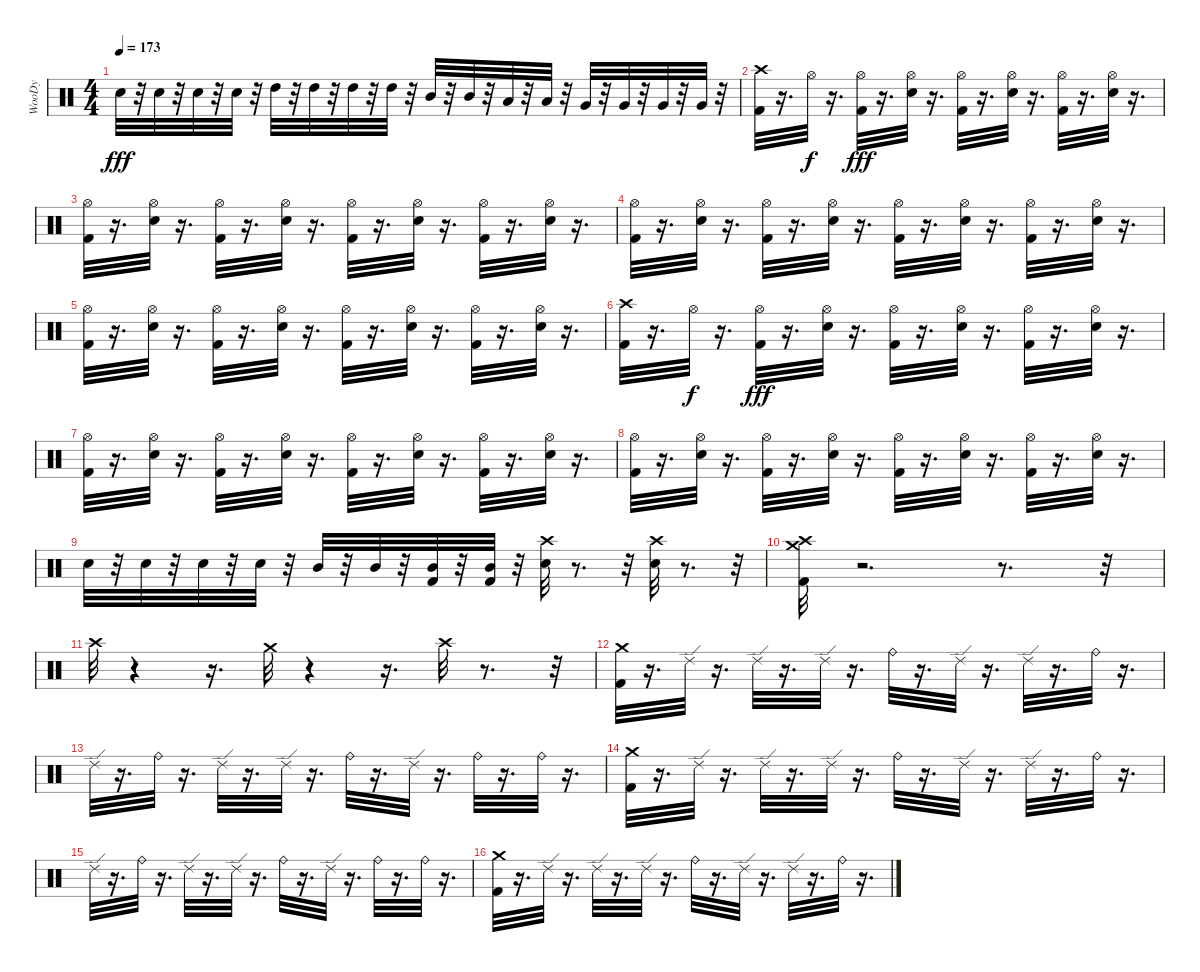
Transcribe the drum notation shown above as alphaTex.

\track ("WooDy" "WooDy") {instrument percussion}
\staff {score}
\articulation defaults
\ts (4 4)
\tempo 173
\clef neutral
\ks c "Electric Snare (hit)".32{dy fff}
r.32 "Electric Snare (hit)".32 r.32 "Electric Snare (hit)".32 r.32 "Electric Snare (hit)".32 r.32 "High Tom (hit)".32 r.32 "High Tom (hit)".32 r.32 "High Tom (hit)".32 r.32 "High Tom (hit)".32 r.32 "Mid Tom (hit)".32 r.32 "Mid Tom (hit)".32 r.32 "Low Tom (hit)".32 r.32 "Low Tom (hit)".32 r.32 "Very Low Tom (hit)".32 r.32 "Very Low Tom (hit)".32 r.32 "Very Low Tom (hit)".32 r.32 "Very Low Tom (hit)".32 r.32 |
("Kick (hit) 2" "Crash high (hit)").32 r.16{d} "Hi-Hat (open)".32{dy f} r.16{d} ("Kick (hit) 2" "Hi-Hat (open)").32{dy fff} r.16{d} ("Electric Snare (hit)" "Hi-Hat (open)").32 r.16{d} ("Kick (hit) 2" "Hi-Hat (open)").32 r.16{d} ("Electric Snare (hit)" "Hi-Hat (open)").32 r.16{d} ("Kick (hit) 2" "Hi-Hat (open)").32 r.16{d} ("Electric Snare (hit)" "Hi-Hat (open)").32 r.16{d} |
("Kick (hit) 2" "Hi-Hat (open)").32 r.16{d} ("Electric Snare (hit)" "Hi-Hat (open)").32 r.16{d} ("Kick (hit) 2" "Hi-Hat (open)").32 r.16{d} ("Electric Snare (hit)" "Hi-Hat (open)").32 r.16{d} ("Kick (hit) 2" "Hi-Hat (open)").32 r.16{d} ("Electric Snare (hit)" "Hi-Hat (open)").32 r.16{d} ("Kick (hit) 2" "Hi-Hat (open)").32 r.16{d} ("Electric Snare (hit)" "Hi-Hat (open)").32 r.16{d} |
("Kick (hit) 2" "Hi-Hat (open)").32 r.16{d} ("Electric Snare (hit)" "Hi-Hat (open)").32 r.16{d} ("Kick (hit) 2" "Hi-Hat (open)").32 r.16{d} ("Electric Snare (hit)" "Hi-Hat (open)").32 r.16{d} ("Kick (hit) 2" "Hi-Hat (open)").32 r.16{d} ("Electric Snare (hit)" "Hi-Hat (open)").32 r.16{d} ("Kick (hit) 2" "Hi-Hat (open)").32 r.16{d} ("Electric Snare (hit)" "Hi-Hat (open)").32 r.16{d} |
("Kick (hit) 2" "Hi-Hat (open)").32 r.16{d} ("Electric Snare (hit)" "Hi-Hat (open)").32 r.16{d} ("Kick (hit) 2" "Hi-Hat (open)").32 r.16{d} ("Electric Snare (hit)" "Hi-Hat (open)").32 r.16{d} ("Kick (hit) 2" "Hi-Hat (open)").32 r.16{d} ("Electric Snare (hit)" "Hi-Hat (open)").32 r.16{d} ("Kick (hit) 2" "Hi-Hat (open)").32 r.16{d} ("Electric Snare (hit)" "Hi-Hat (open)").32 r.16{d} |
("Kick (hit) 2" "Crash high (hit)").32 r.16{d} "Hi-Hat (open)".32{dy f} r.16{d} ("Kick (hit) 2" "Hi-Hat (open)").32{dy fff} r.16{d} ("Electric Snare (hit)" "Hi-Hat (open)").32 r.16{d} ("Kick (hit) 2" "Hi-Hat (open)").32 r.16{d} ("Electric Snare (hit)" "Hi-Hat (open)").32 r.16{d} ("Kick (hit) 2" "Hi-Hat (open)").32 r.16{d} ("Electric Snare (hit)" "Hi-Hat (open)").32 r.16{d} |
("Kick (hit) 2" "Hi-Hat (open)").32 r.16{d} ("Electric Snare (hit)" "Hi-Hat (open)").32 r.16{d} ("Kick (hit) 2" "Hi-Hat (open)").32 r.16{d} ("Electric Snare (hit)" "Hi-Hat (open)").32 r.16{d} ("Kick (hit) 2" "Hi-Hat (open)").32 r.16{d} ("Electric Snare (hit)" "Hi-Hat (open)").32 r.16{d} ("Kick (hit) 2" "Hi-Hat (open)").32 r.16{d} ("Electric Snare (hit)" "Hi-Hat (open)").32 r.16{d} |
("Kick (hit) 2" "Hi-Hat (open)").32 r.16{d} ("Electric Snare (hit)" "Hi-Hat (open)").32 r.16{d} ("Kick (hit) 2" "Hi-Hat (open)").32 r.16{d} ("Electric Snare (hit)" "Hi-Hat (open)").32 r.16{d} ("Kick (hit) 2" "Hi-Hat (open)").32 r.16{d} ("Electric Snare (hit)" "Hi-Hat (open)").32 r.16{d} ("Kick (hit) 2" "Hi-Hat (open)").32 r.16{d} ("Electric Snare (hit)" "Hi-Hat (open)").32 r.16{d} |
"Electric Snare (hit)".32 r.32 "Electric Snare (hit)".32 r.32 "Electric Snare (hit)".32 r.32 "Electric Snare (hit)".32 r.32 "Mid Tom (hit)".32 r.32 "Mid Tom (hit)".32 r.32 ("Kick (hit) 2" "Mid Tom (hit)").32 r.32 ("Kick (hit) 2" "Mid Tom (hit)").32 r.32 ("Electric Snare (hit)" "Crash high (hit)").32 r.8{d} r.32 ("Electric Snare (hit)" "Crash high (hit)").32 r.8{d} r.32 |
("Kick (hit) 2" "Crash high (hit)" "Crash medium (hit)").32 r.2{d} r.8{d} r.32 |
"Crash high (hit)".32 r.4 r.16{d} "Crash medium (hit)".32 r.4 r.16{d} "Crash high (hit)".32 r.8{d} r.32 |
("Kick (hit) 2" "Crash medium (hit)").32 r.16{d} "Ride (edge) 2".32 r.16{d} "Ride (edge) 2".32 r.16{d} "Ride (edge) 2".32 r.16{d} "Ride (bell)".32 r.16{d} "Ride (edge) 2".32 r.16{d} "Ride (edge) 2".32 r.16{d} "Ride (bell)".32 r.16{d} |
"Ride (edge) 2".32 r.16{d} "Ride (bell)".32 r.16{d} "Ride (edge) 2".32 r.16{d} "Ride (edge) 2".32 r.16{d} "Ride (bell)".32 r.16{d} "Ride (edge) 2".32 r.16{d} "Ride (bell)".32 r.16{d} "Ride (bell)".32 r.16{d} |
("Kick (hit) 2" "Crash medium (hit)").32 r.16{d} "Ride (edge) 2".32 r.16{d} "Ride (edge) 2".32 r.16{d} "Ride (edge) 2".32 r.16{d} "Ride (bell)".32 r.16{d} "Ride (edge) 2".32 r.16{d} "Ride (edge) 2".32 r.16{d} "Ride (bell)".32 r.16{d} |
"Ride (edge) 2".32 r.16{d} "Ride (bell)".32 r.16{d} "Ride (edge) 2".32 r.16{d} "Ride (edge) 2".32 r.16{d} "Ride (bell)".32 r.16{d} "Ride (edge) 2".32 r.16{d} "Ride (bell)".32 r.16{d} "Ride (bell)".32 r.16{d} |
("Kick (hit) 2" "Crash medium (hit)").32 r.16{d} "Ride (edge) 2".32 r.16{d} "Ride (edge) 2".32 r.16{d} "Ride (edge) 2".32 r.16{d} "Ride (bell)".32 r.16{d} "Ride (edge) 2".32 r.16{d} "Ride (edge) 2".32 r.16{d} "Ride (bell)".32 r.16{d}
